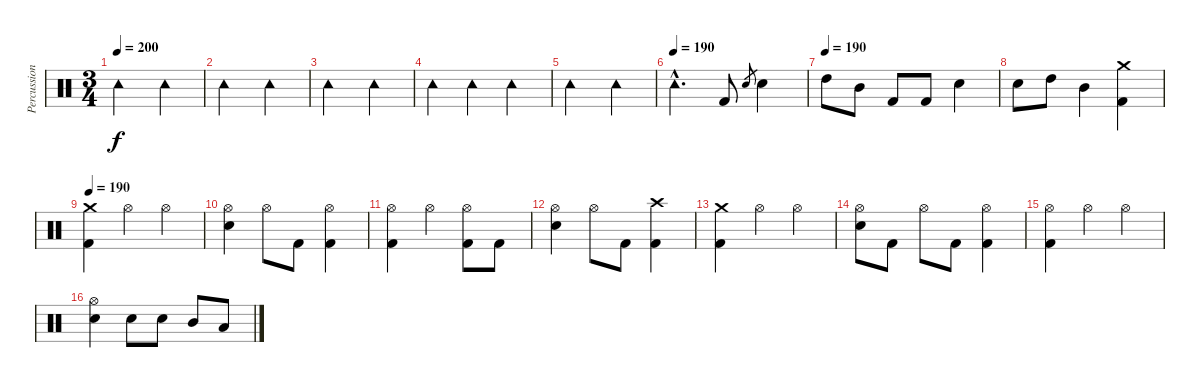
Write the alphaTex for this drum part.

\track ("Percussions" "Percussion") {instrument percussion}
\staff {score}
\articulation defaults
\ts (3 4)
\tempo 200
\clef neutral
\ks c "Tambourine (hit)".2{dy f} "Tambourine (hit)".4
|
"Tambourine (hit)".2 "Tambourine (hit)".4 |
"Tambourine (hit)".2 "Tambourine (hit)".4 |
"Tambourine (hit)".4 "Tambourine (hit)".4 "Tambourine (hit)".4 |
"Tambourine (hit)".2 "Tambourine (hit)".4 |
\tempo (190)
"Tambourine (hit)"{hac}.4{d} "Kick (hit) 2".8 "Electric Snare (hit)".8{gr} "Electric Snare (hit)".4 |
\tempo (190)
"High Tom (hit)".8 "Mid Tom (hit)".8 "Kick (hit) 2".8 "Kick (hit) 2".8 "Electric Snare (hit)".4 |
"Electric Snare (hit)".8 "High Tom (hit)".8 "Mid Tom (hit)".4 ("Crash medium (hit)" "Kick (hit) 2").4 |
\tempo 190
("Crash medium (hit)" "Kick (hit) 2").4 "Hi-Hat (open)".4 "Hi-Hat (open)".4 |
("Hi-Hat (open)" "Electric Snare (hit)").4 "Hi-Hat (open)".8 "Kick (hit) 2".8 ("Hi-Hat (open)" "Kick (hit) 2").4 |
("Hi-Hat (open)" "Kick (hit) 2").4 "Hi-Hat (open)".4 ("Hi-Hat (open)" "Kick (hit) 2").8 "Kick (hit) 2".8 |
("Hi-Hat (open)" "Electric Snare (hit)").4 "Hi-Hat (open)".8 "Kick (hit) 2".8 ("Crash high (hit)" "Kick (hit) 2").4 |
("Crash medium (hit)" "Kick (hit) 2").4 "Hi-Hat (open)".4 "Hi-Hat (open)".4 |
("Hi-Hat (open)" "Electric Snare (hit)").8 "Kick (hit) 2".8 "Hi-Hat (open)".8 "Kick (hit) 2".8 ("Hi-Hat (open)" "Kick (hit) 2").4 |
("Hi-Hat (open)" "Kick (hit) 2").4 "Hi-Hat (open)".4 "Hi-Hat (open)".4 |
("Hi-Hat (open)" "Electric Snare (hit)").4 "Electric Snare (hit)".8 "Electric Snare (hit)".8 "Mid Tom (hit)".8 "Low Tom (hit)".8
